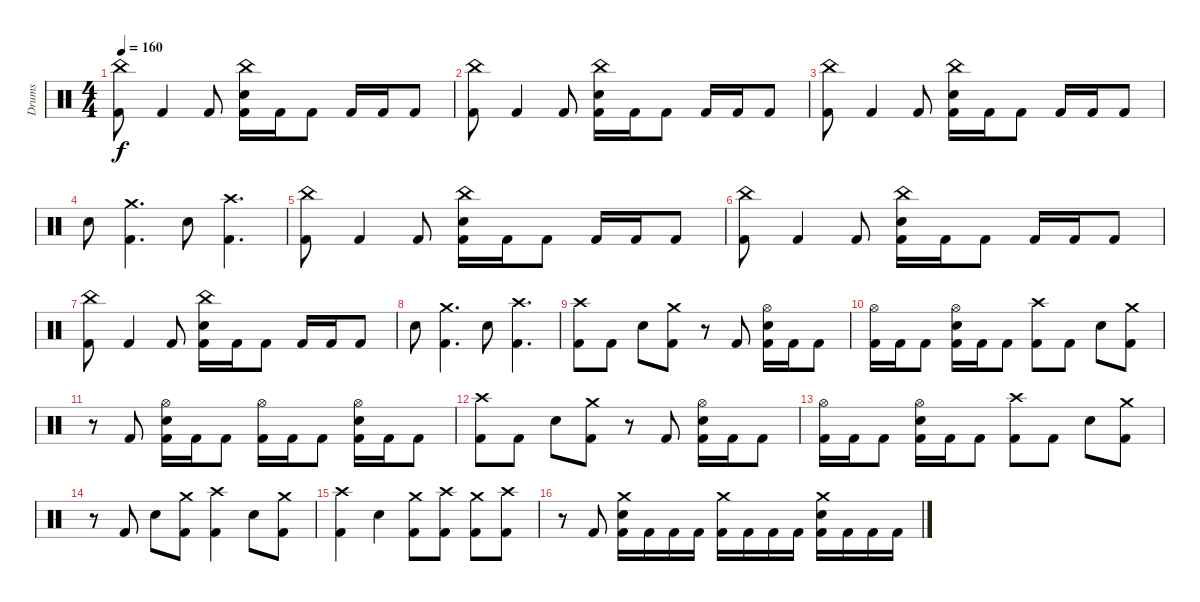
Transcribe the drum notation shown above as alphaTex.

\track ("Drums" "Drums") {instrument percussion}
\staff {score}
\articulation defaults
\ts (4 4)
\tempo 160
\clef neutral
\ks c
("China (hit)" "Kick (hit) 2").8{dy f} "Kick (hit) 2".4 "Kick (hit) 2".8 ("China (hit)" "Electric Snare (hit)" "Kick (hit) 2").16 "Kick (hit) 2".16 "Kick (hit) 2".8 "Kick (hit) 2".16 "Kick (hit) 2".16 "Kick (hit) 2".8 |
("China (hit)" "Kick (hit) 2").8 "Kick (hit) 2".4 "Kick (hit) 2".8 ("China (hit)" "Electric Snare (hit)" "Kick (hit) 2").16 "Kick (hit) 2".16 "Kick (hit) 2".8 "Kick (hit) 2".16 "Kick (hit) 2".16 "Kick (hit) 2".8 |
("China (hit)" "Kick (hit) 2").8 "Kick (hit) 2".4 "Kick (hit) 2".8 ("China (hit)" "Electric Snare (hit)" "Kick (hit) 2").16 "Kick (hit) 2".16 "Kick (hit) 2".8 "Kick (hit) 2".16 "Kick (hit) 2".16 "Kick (hit) 2".8 |
"Electric Snare (hit)".8 ("Crash medium (hit)" "Kick (hit) 2").4{d} "Electric Snare (hit)".8 ("Crash high (hit)" "Kick (hit) 2").4{d} |
("China (hit)" "Kick (hit) 2").8 "Kick (hit) 2".4 "Kick (hit) 2".8 ("China (hit)" "Electric Snare (hit)" "Kick (hit) 2").16 "Kick (hit) 2".16 "Kick (hit) 2".8 "Kick (hit) 2".16 "Kick (hit) 2".16 "Kick (hit) 2".8 |
("China (hit)" "Kick (hit) 2").8 "Kick (hit) 2".4 "Kick (hit) 2".8 ("China (hit)" "Electric Snare (hit)" "Kick (hit) 2").16 "Kick (hit) 2".16 "Kick (hit) 2".8 "Kick (hit) 2".16 "Kick (hit) 2".16 "Kick (hit) 2".8 |
("China (hit)" "Kick (hit) 2").8 "Kick (hit) 2".4 "Kick (hit) 2".8 ("China (hit)" "Electric Snare (hit)" "Kick (hit) 2").16 "Kick (hit) 2".16 "Kick (hit) 2".8 "Kick (hit) 2".16 "Kick (hit) 2".16 "Kick (hit) 2".8 |
"Electric Snare (hit)".8 ("Crash medium (hit)" "Kick (hit) 2").4{d} "Electric Snare (hit)".8 ("Crash high (hit)" "Kick (hit) 2").4{d} |
("Crash high (hit)" "Kick (hit) 2").8 "Kick (hit) 2".8 "Electric Snare (hit)".8 ("Crash medium (hit)" "Kick (hit) 2").8 r.8 "Kick (hit) 2".8 ("Hi-Hat (open)" "Electric Snare (hit)" "Kick (hit) 2").16 "Kick (hit) 2".16 "Kick (hit) 2".8 |
("Hi-Hat (open)" "Kick (hit) 2").16 "Kick (hit) 2".16 "Kick (hit) 2".8 ("Hi-Hat (open)" "Electric Snare (hit)" "Kick (hit) 2").16 "Kick (hit) 2".16 "Kick (hit) 2".8 ("Crash high (hit)" "Kick (hit) 2").8 "Kick (hit) 2".8 "Electric Snare (hit)".8 ("Crash medium (hit)" "Kick (hit) 2").8 |
r.8 "Kick (hit) 2".8 ("Hi-Hat (open)" "Electric Snare (hit)" "Kick (hit) 2").16 "Kick (hit) 2".16 "Kick (hit) 2".8 ("Hi-Hat (open)" "Kick (hit) 2").16 "Kick (hit) 2".16 "Kick (hit) 2".8 ("Hi-Hat (open)" "Electric Snare (hit)" "Kick (hit) 2").16 "Kick (hit) 2".16 "Kick (hit) 2".8 |
("Crash high (hit)" "Kick (hit) 2").8 "Kick (hit) 2".8 "Electric Snare (hit)".8 ("Crash medium (hit)" "Kick (hit) 2").8 r.8 "Kick (hit) 2".8 ("Hi-Hat (open)" "Electric Snare (hit)" "Kick (hit) 2").16 "Kick (hit) 2".16 "Kick (hit) 2".8 |
("Hi-Hat (open)" "Kick (hit) 2").16 "Kick (hit) 2".16 "Kick (hit) 2".8 ("Hi-Hat (open)" "Electric Snare (hit)" "Kick (hit) 2").16 "Kick (hit) 2".16 "Kick (hit) 2".8 ("Crash high (hit)" "Kick (hit) 2").8 "Kick (hit) 2".8 "Electric Snare (hit)".8 ("Crash medium (hit)" "Kick (hit) 2").8 |
r.8 "Kick (hit) 2".8 "Electric Snare (hit)".8 ("Crash medium (hit)" "Kick (hit) 2").8 ("Crash high (hit)" "Kick (hit) 2").4 "Electric Snare (hit)".8 ("Crash medium (hit)" "Kick (hit) 2").8 |
("Crash high (hit)" "Kick (hit) 2").4 "Electric Snare (hit)".4 ("Crash medium (hit)" "Kick (hit) 2").8 ("Crash high (hit)" "Kick (hit) 2").8 ("Crash medium (hit)" "Kick (hit) 2").8 ("Crash high (hit)" "Kick (hit) 2").8 |
r.8 "Kick (hit) 2".8 ("Crash medium (hit)" "Electric Snare (hit)" "Kick (hit) 2").16 "Kick (hit) 2".16 "Kick (hit) 2".16 "Kick (hit) 2".16 ("Crash medium (hit)" "Kick (hit) 2").16 "Kick (hit) 2".16 "Kick (hit) 2".16 "Kick (hit) 2".16 ("Crash medium (hit)" "Electric Snare (hit)" "Kick (hit) 2").16 "Kick (hit) 2".16 "Kick (hit) 2".16 "Kick (hit) 2".16
